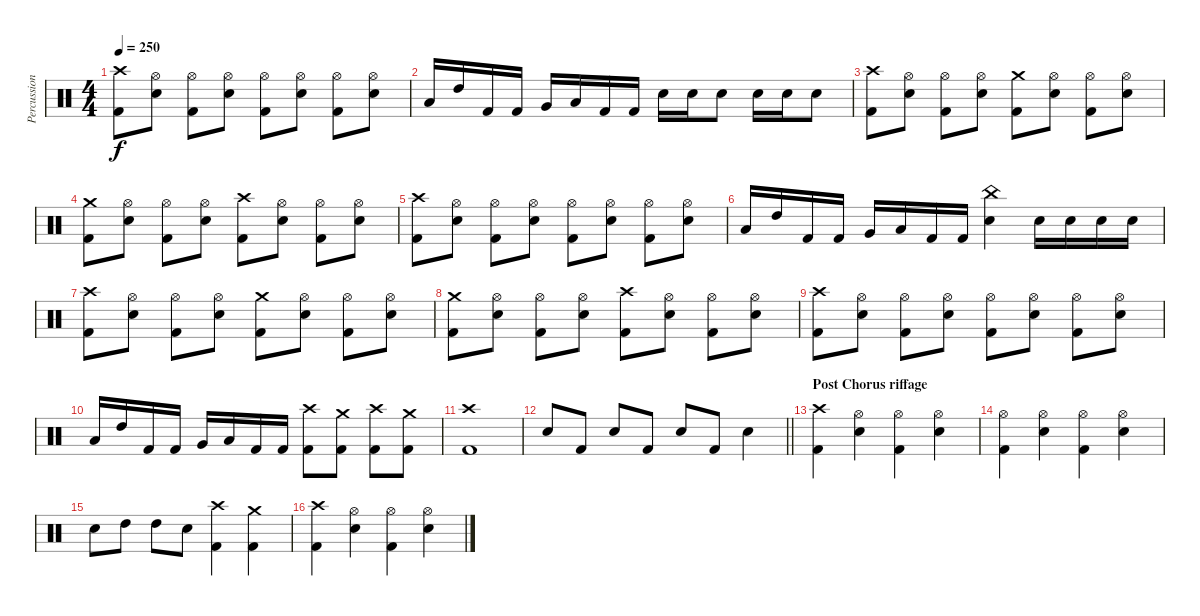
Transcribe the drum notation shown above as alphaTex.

\track ("Percussion" "Percussion") {instrument percussion}
\staff {score}
\articulation defaults
\ts (4 4)
\tempo 250
\clef neutral
\ks c
("Crash high (hit)" "Kick (hit) 2").8{dy f} ("Hi-Hat (open)" "Electric Snare (hit)").8 ("Hi-Hat (open)" "Kick (hit) 2").8 ("Hi-Hat (open)" "Electric Snare (hit)").8 ("Hi-Hat (open)" "Kick (hit) 2").8 ("Hi-Hat (open)" "Electric Snare (hit)").8 ("Hi-Hat (open)" "Kick (hit) 2").8 ("Hi-Hat (open)" "Electric Snare (hit)").8 |
"Low Tom (hit)".16 "High Tom (hit)".16 "Kick (hit) 2".16 "Kick (hit) 2".16 "Very Low Tom (hit)".16 "Low Tom (hit)".16 "Kick (hit) 2".16 "Kick (hit) 2".16 "Electric Snare (hit)".16 "Electric Snare (hit)".16 "Electric Snare (hit)".8 "Electric Snare (hit)".16 "Electric Snare (hit)".16 "Electric Snare (hit)".8 |
("Crash high (hit)" "Kick (hit) 2").8 ("Hi-Hat (open)" "Electric Snare (hit)").8 ("Hi-Hat (open)" "Kick (hit) 2").8 ("Hi-Hat (open)" "Electric Snare (hit)").8 ("Crash medium (hit)" "Kick (hit) 2").8 ("Hi-Hat (open)" "Electric Snare (hit)").8 ("Hi-Hat (open)" "Kick (hit) 2").8 ("Hi-Hat (open)" "Electric Snare (hit)").8 |
("Crash medium (hit)" "Kick (hit) 2").8 ("Hi-Hat (open)" "Electric Snare (hit)").8 ("Hi-Hat (open)" "Kick (hit) 2").8 ("Hi-Hat (open)" "Electric Snare (hit)").8 ("Crash high (hit)" "Kick (hit) 2").8 ("Hi-Hat (open)" "Electric Snare (hit)").8 ("Hi-Hat (open)" "Kick (hit) 2").8 ("Hi-Hat (open)" "Electric Snare (hit)").8 |
("Crash high (hit)" "Kick (hit) 2").8 ("Hi-Hat (open)" "Electric Snare (hit)").8 ("Hi-Hat (open)" "Kick (hit) 2").8 ("Hi-Hat (open)" "Electric Snare (hit)").8 ("Hi-Hat (open)" "Kick (hit) 2").8 ("Hi-Hat (open)" "Electric Snare (hit)").8 ("Hi-Hat (open)" "Kick (hit) 2").8 ("Hi-Hat (open)" "Electric Snare (hit)").8 |
"Low Tom (hit)".16 "High Tom (hit)".16 "Kick (hit) 2".16 "Kick (hit) 2".16 "Very Low Tom (hit)".16 "Low Tom (hit)".16 "Kick (hit) 2".16 "Kick (hit) 2".16 ("China (hit)" "Electric Snare (hit)").4 "Electric Snare (hit)".16 "Electric Snare (hit)".16 "Electric Snare (hit)".16 "Electric Snare (hit)".16 |
("Crash high (hit)" "Kick (hit) 2").8 ("Hi-Hat (open)" "Electric Snare (hit)").8 ("Hi-Hat (open)" "Kick (hit) 2").8 ("Hi-Hat (open)" "Electric Snare (hit)").8 ("Crash medium (hit)" "Kick (hit) 2").8 ("Hi-Hat (open)" "Electric Snare (hit)").8 ("Hi-Hat (open)" "Kick (hit) 2").8 ("Hi-Hat (open)" "Electric Snare (hit)").8 |
("Crash medium (hit)" "Kick (hit) 2").8 ("Hi-Hat (open)" "Electric Snare (hit)").8 ("Hi-Hat (open)" "Kick (hit) 2").8 ("Hi-Hat (open)" "Electric Snare (hit)").8 ("Crash high (hit)" "Kick (hit) 2").8 ("Hi-Hat (open)" "Electric Snare (hit)").8 ("Hi-Hat (open)" "Kick (hit) 2").8 ("Hi-Hat (open)" "Electric Snare (hit)").8 |
("Crash high (hit)" "Kick (hit) 2").8 ("Hi-Hat (open)" "Electric Snare (hit)").8 ("Hi-Hat (open)" "Kick (hit) 2").8 ("Hi-Hat (open)" "Electric Snare (hit)").8 ("Hi-Hat (open)" "Kick (hit) 2").8 ("Hi-Hat (open)" "Electric Snare (hit)").8 ("Hi-Hat (open)" "Kick (hit) 2").8 ("Hi-Hat (open)" "Electric Snare (hit)").8 |
"Low Tom (hit)".16 "High Tom (hit)".16 "Kick (hit) 2".16 "Kick (hit) 2".16 "Very Low Tom (hit)".16 "Low Tom (hit)".16 "Kick (hit) 2".16 "Kick (hit) 2".16 ("Crash high (hit)" "Kick (hit) 2").8 ("Crash medium (hit)" "Kick (hit) 2").8 ("Crash high (hit)" "Kick (hit) 2").8 ("Crash medium (hit)" "Kick (hit) 2").8 |
("Crash high (hit)" "Kick (hit) 2").1 |
\barLineRight lightlight "Electric Snare (hit)".8 "Kick (hit) 2".8 "Electric Snare (hit)".8 "Kick (hit) 2".8 "Electric Snare (hit)".8 "Kick (hit) 2".8 "Electric Snare (hit)".4
|
\section ("" "Post Chorus riffage")
("Crash high (hit)" "Kick (hit) 2").4 ("Hi-Hat (open)" "Electric Snare (hit)").4 ("Hi-Hat (open)" "Kick (hit) 2").4 ("Hi-Hat (open)" "Electric Snare (hit)").4 |
("Hi-Hat (open)" "Kick (hit) 2").4 ("Hi-Hat (open)" "Electric Snare (hit)").4 ("Hi-Hat (open)" "Kick (hit) 2").4 ("Hi-Hat (open)" "Electric Snare (hit)").4 |
"Electric Snare (hit)".8 "High Tom (hit)".8 "High Tom (hit)".8 "Electric Snare (hit)".8 ("Crash high (hit)" "Kick (hit) 2").4 ("Crash medium (hit)" "Kick (hit) 2").4 |
("Crash high (hit)" "Kick (hit) 2").4 ("Hi-Hat (open)" "Electric Snare (hit)").4 ("Hi-Hat (open)" "Kick (hit) 2").4 ("Hi-Hat (open)" "Electric Snare (hit)").4
